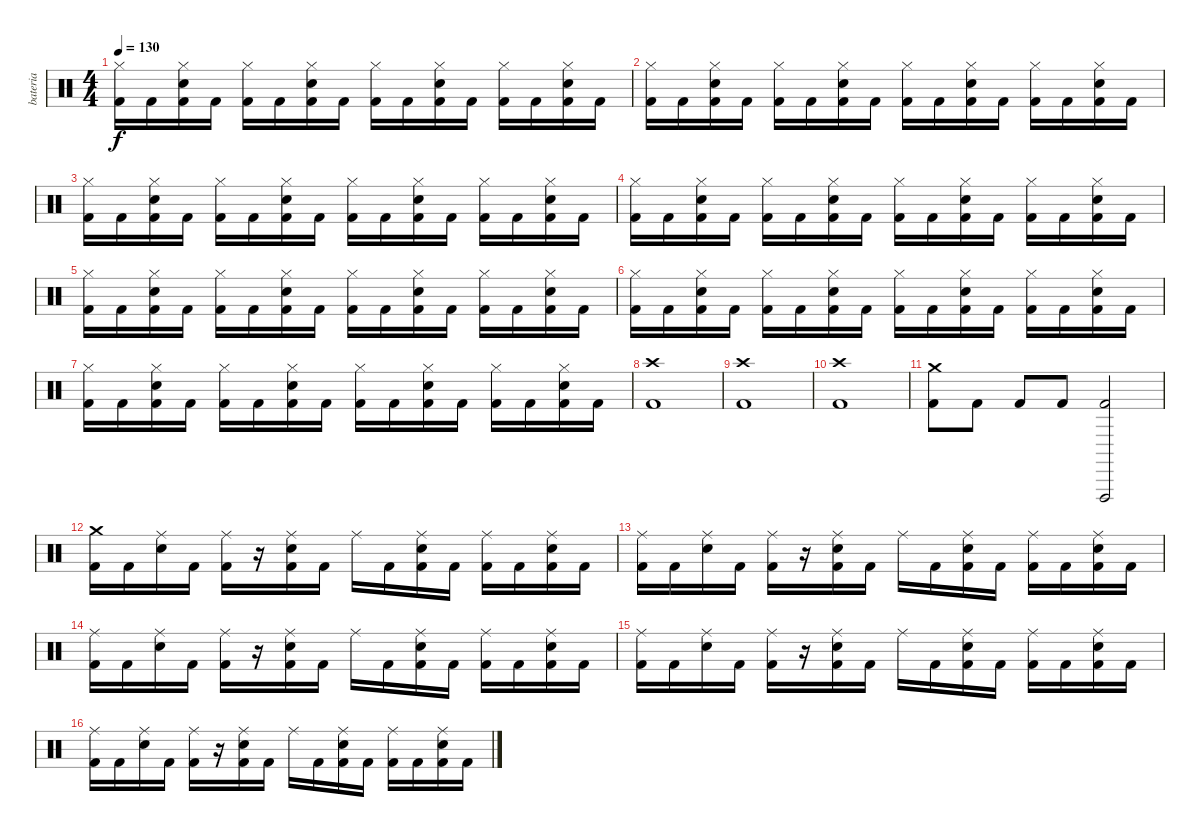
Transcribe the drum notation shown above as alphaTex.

\track ("bateria" "bateria") {instrument percussion}
\staff {score}
\articulation defaults
\ts (4 4)
\tempo 130
\clef neutral
\ks c
("Hi-Hat (closed)" "Kick (hit) 2").16{dy f} "Kick (hit) 2".16 ("Hi-Hat (closed)" "Electric Snare (hit)" "Kick (hit) 2").16 "Kick (hit) 2".16 ("Hi-Hat (closed)" "Kick (hit) 2").16 "Kick (hit) 2".16 ("Hi-Hat (closed)" "Electric Snare (hit)" "Kick (hit) 2").16 "Kick (hit) 2".16 ("Hi-Hat (closed)" "Kick (hit) 2").16 "Kick (hit) 2".16 ("Hi-Hat (closed)" "Electric Snare (hit)" "Kick (hit) 2").16 "Kick (hit) 2".16 ("Hi-Hat (closed)" "Kick (hit) 2").16 "Kick (hit) 2".16 ("Hi-Hat (closed)" "Electric Snare (hit)" "Kick (hit) 2").16 "Kick (hit) 2".16 |
("Hi-Hat (closed)" "Kick (hit) 2").16 "Kick (hit) 2".16 ("Hi-Hat (closed)" "Electric Snare (hit)" "Kick (hit) 2").16 "Kick (hit) 2".16 ("Hi-Hat (closed)" "Kick (hit) 2").16 "Kick (hit) 2".16 ("Hi-Hat (closed)" "Electric Snare (hit)" "Kick (hit) 2").16 "Kick (hit) 2".16 ("Hi-Hat (closed)" "Kick (hit) 2").16 "Kick (hit) 2".16 ("Hi-Hat (closed)" "Electric Snare (hit)" "Kick (hit) 2").16 "Kick (hit) 2".16 ("Hi-Hat (closed)" "Kick (hit) 2").16 "Kick (hit) 2".16 ("Hi-Hat (closed)" "Electric Snare (hit)" "Kick (hit) 2").16 "Kick (hit) 2".16 |
("Hi-Hat (closed)" "Kick (hit) 2").16 "Kick (hit) 2".16 ("Hi-Hat (closed)" "Electric Snare (hit)" "Kick (hit) 2").16 "Kick (hit) 2".16 ("Hi-Hat (closed)" "Kick (hit) 2").16 "Kick (hit) 2".16 ("Hi-Hat (closed)" "Electric Snare (hit)" "Kick (hit) 2").16 "Kick (hit) 2".16 ("Hi-Hat (closed)" "Kick (hit) 2").16 "Kick (hit) 2".16 ("Hi-Hat (closed)" "Electric Snare (hit)" "Kick (hit) 2").16 "Kick (hit) 2".16 ("Hi-Hat (closed)" "Kick (hit) 2").16 "Kick (hit) 2".16 ("Hi-Hat (closed)" "Electric Snare (hit)" "Kick (hit) 2").16 "Kick (hit) 2".16 |
("Hi-Hat (closed)" "Kick (hit) 2").16 "Kick (hit) 2".16 ("Hi-Hat (closed)" "Electric Snare (hit)" "Kick (hit) 2").16 "Kick (hit) 2".16 ("Hi-Hat (closed)" "Kick (hit) 2").16 "Kick (hit) 2".16 ("Hi-Hat (closed)" "Electric Snare (hit)" "Kick (hit) 2").16 "Kick (hit) 2".16 ("Hi-Hat (closed)" "Kick (hit) 2").16 "Kick (hit) 2".16 ("Hi-Hat (closed)" "Electric Snare (hit)" "Kick (hit) 2").16 "Kick (hit) 2".16 ("Hi-Hat (closed)" "Kick (hit) 2").16 "Kick (hit) 2".16 ("Hi-Hat (closed)" "Electric Snare (hit)" "Kick (hit) 2").16 "Kick (hit) 2".16 |
("Hi-Hat (closed)" "Kick (hit) 2").16 "Kick (hit) 2".16 ("Hi-Hat (closed)" "Electric Snare (hit)" "Kick (hit) 2").16 "Kick (hit) 2".16 ("Hi-Hat (closed)" "Kick (hit) 2").16 "Kick (hit) 2".16 ("Hi-Hat (closed)" "Electric Snare (hit)" "Kick (hit) 2").16 "Kick (hit) 2".16 ("Hi-Hat (closed)" "Kick (hit) 2").16 "Kick (hit) 2".16 ("Hi-Hat (closed)" "Electric Snare (hit)" "Kick (hit) 2").16 "Kick (hit) 2".16 ("Hi-Hat (closed)" "Kick (hit) 2").16 "Kick (hit) 2".16 ("Hi-Hat (closed)" "Electric Snare (hit)" "Kick (hit) 2").16 "Kick (hit) 2".16 |
("Hi-Hat (closed)" "Kick (hit) 2").16 "Kick (hit) 2".16 ("Hi-Hat (closed)" "Electric Snare (hit)" "Kick (hit) 2").16 "Kick (hit) 2".16 ("Hi-Hat (closed)" "Kick (hit) 2").16 "Kick (hit) 2".16 ("Hi-Hat (closed)" "Electric Snare (hit)" "Kick (hit) 2").16 "Kick (hit) 2".16 ("Hi-Hat (closed)" "Kick (hit) 2").16 "Kick (hit) 2".16 ("Hi-Hat (closed)" "Electric Snare (hit)" "Kick (hit) 2").16 "Kick (hit) 2".16 ("Hi-Hat (closed)" "Kick (hit) 2").16 "Kick (hit) 2".16 ("Hi-Hat (closed)" "Electric Snare (hit)" "Kick (hit) 2").16 "Kick (hit) 2".16 |
("Hi-Hat (closed)" "Kick (hit) 2").16 "Kick (hit) 2".16 ("Hi-Hat (closed)" "Electric Snare (hit)" "Kick (hit) 2").16 "Kick (hit) 2".16 ("Hi-Hat (closed)" "Kick (hit) 2").16 "Kick (hit) 2".16 ("Hi-Hat (closed)" "Electric Snare (hit)" "Kick (hit) 2").16 "Kick (hit) 2".16 ("Hi-Hat (closed)" "Kick (hit) 2").16 "Kick (hit) 2".16 ("Hi-Hat (closed)" "Electric Snare (hit)" "Kick (hit) 2").16 "Kick (hit) 2".16 ("Hi-Hat (closed)" "Kick (hit) 2").16 "Kick (hit) 2".16 ("Hi-Hat (closed)" "Electric Snare (hit)" "Kick (hit) 2").16 "Kick (hit) 2".16 |
("Crash high (hit)" "Kick (hit) 2").1 |
("Crash high (hit)" "Kick (hit) 2").1 |
("Crash high (hit)" "Kick (hit) 2").1 |
("Crash medium (hit)" "Kick (hit) 2").8 "Kick (hit) 2".8 "Kick (hit) 2".8 "Kick (hit) 2".8 ("Vibraslap (hit)" "Kick (hit) 2").2 |
("Crash medium (hit)" "Kick (hit) 2").16 "Kick (hit) 2".16 ("Ride (middle)" "Electric Snare (hit)").16 "Kick (hit) 2".16 ("Ride (middle)" "Kick (hit) 2").16 r.16 ("Ride (middle)" "Electric Snare (hit)" "Kick (hit) 2").16 "Kick (hit) 2".16 "Ride (middle)".16 "Kick (hit) 2".16 ("Ride (middle)" "Electric Snare (hit)" "Kick (hit) 2").16 "Kick (hit) 2".16 ("Ride (middle)" "Kick (hit) 2").16 "Kick (hit) 2".16 ("Ride (middle)" "Electric Snare (hit)" "Kick (hit) 2").16 "Kick (hit) 2".16 |
("Ride (middle)" "Kick (hit) 2").16 "Kick (hit) 2".16 ("Ride (middle)" "Electric Snare (hit)").16 "Kick (hit) 2".16 ("Ride (middle)" "Kick (hit) 2").16 r.16 ("Ride (middle)" "Electric Snare (hit)" "Kick (hit) 2").16 "Kick (hit) 2".16 "Ride (middle)".16 "Kick (hit) 2".16 ("Ride (middle)" "Electric Snare (hit)" "Kick (hit) 2").16 "Kick (hit) 2".16 ("Ride (middle)" "Kick (hit) 2").16 "Kick (hit) 2".16 ("Ride (middle)" "Electric Snare (hit)" "Kick (hit) 2").16 "Kick (hit) 2".16 |
("Ride (middle)" "Kick (hit) 2").16 "Kick (hit) 2".16 ("Ride (middle)" "Electric Snare (hit)").16 "Kick (hit) 2".16 ("Ride (middle)" "Kick (hit) 2").16 r.16 ("Ride (middle)" "Electric Snare (hit)" "Kick (hit) 2").16 "Kick (hit) 2".16 "Ride (middle)".16 "Kick (hit) 2".16 ("Ride (middle)" "Electric Snare (hit)" "Kick (hit) 2").16 "Kick (hit) 2".16 ("Ride (middle)" "Kick (hit) 2").16 "Kick (hit) 2".16 ("Ride (middle)" "Electric Snare (hit)" "Kick (hit) 2").16 "Kick (hit) 2".16 |
("Ride (middle)" "Kick (hit) 2").16 "Kick (hit) 2".16 ("Ride (middle)" "Electric Snare (hit)").16 "Kick (hit) 2".16 ("Ride (middle)" "Kick (hit) 2").16 r.16 ("Ride (middle)" "Electric Snare (hit)" "Kick (hit) 2").16 "Kick (hit) 2".16 "Ride (middle)".16 "Kick (hit) 2".16 ("Ride (middle)" "Electric Snare (hit)" "Kick (hit) 2").16 "Kick (hit) 2".16 ("Ride (middle)" "Kick (hit) 2").16 "Kick (hit) 2".16 ("Ride (middle)" "Electric Snare (hit)" "Kick (hit) 2").16 "Kick (hit) 2".16 |
("Ride (middle)" "Kick (hit) 2").16 "Kick (hit) 2".16 ("Ride (middle)" "Electric Snare (hit)").16 "Kick (hit) 2".16 ("Ride (middle)" "Kick (hit) 2").16 r.16 ("Ride (middle)" "Electric Snare (hit)" "Kick (hit) 2").16 "Kick (hit) 2".16 "Ride (middle)".16 "Kick (hit) 2".16 ("Ride (middle)" "Electric Snare (hit)" "Kick (hit) 2").16 "Kick (hit) 2".16 ("Ride (middle)" "Kick (hit) 2").16 "Kick (hit) 2".16 ("Ride (middle)" "Electric Snare (hit)" "Kick (hit) 2").16 "Kick (hit) 2".16
